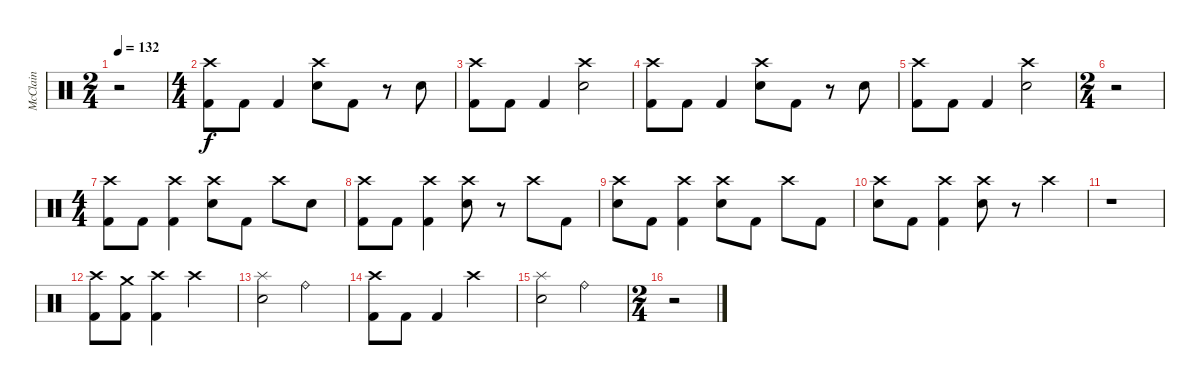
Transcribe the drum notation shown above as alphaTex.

\track ("McClain" "McClain") {instrument percussion}
\staff {score}
\articulation defaults
\ts (2 4)
\tempo 132
\clef neutral
\ks c
r.2{dy f} |
\ts (4 4)
("Crash high (hit)" "Kick (hit) 2").8 "Kick (hit) 2".8 "Kick (hit) 2".4 ("Crash high (hit)" "Electric Snare (hit)").8 "Kick (hit) 2".8 r.8 "Electric Snare (hit)".8 |
("Crash high (hit)" "Kick (hit) 2").8 "Kick (hit) 2".8 "Kick (hit) 2".4 ("Crash high (hit)" "Electric Snare (hit)").2 |
("Crash high (hit)" "Kick (hit) 2").8 "Kick (hit) 2".8 "Kick (hit) 2".4 ("Crash high (hit)" "Electric Snare (hit)").8 "Kick (hit) 2".8 r.8 "Electric Snare (hit)".8 |
("Crash high (hit)" "Kick (hit) 2").8 "Kick (hit) 2".8 "Kick (hit) 2".4 ("Crash high (hit)" "Electric Snare (hit)").2 |
\ts (2 4)
r.2 |
\ts (4 4)
("Crash high (hit)" "Kick (hit) 2").8 "Kick (hit) 2".8 ("Crash high (hit)" "Kick (hit) 2").4 ("Crash high (hit)" "Electric Snare (hit)").8 "Kick (hit) 2".8 "Crash high (hit)".8 "Electric Snare (hit)".8 |
("Crash high (hit)" "Kick (hit) 2").8 "Kick (hit) 2".8 ("Crash high (hit)" "Kick (hit) 2").4 ("Crash high (hit)" "Electric Snare (hit)").8 r.8 "Crash high (hit)".8 "Kick (hit) 2".8 |
("Crash high (hit)" "Electric Snare (hit)").8 "Kick (hit) 2".8 ("Crash high (hit)" "Kick (hit) 2").4 ("Crash high (hit)" "Electric Snare (hit)").8 "Kick (hit) 2".8 "Crash high (hit)".8 "Kick (hit) 2".8 |
("Crash high (hit)" "Electric Snare (hit)").8 "Kick (hit) 2".8 ("Crash high (hit)" "Kick (hit) 2").4 ("Crash high (hit)" "Electric Snare (hit)").8 r.8 "Crash high (hit)".4 |
r.1 |
("Crash high (hit)" "Kick (hit) 2").8 ("Crash medium (hit)" "Kick (hit) 2").8 ("Crash high (hit)" "Kick (hit) 2").4 "Crash high (hit)".2 |
("Splash (hit)" "Electric Snare (hit)").2 "Ride (bell)".2 |
("Crash high (hit)" "Kick (hit) 2").8 "Kick (hit) 2".8 "Kick (hit) 2".4 "Crash high (hit)".2 |
("Splash (hit)" "Electric Snare (hit)").2 "Ride (bell)".2 |
\ts (2 4)
r.2
